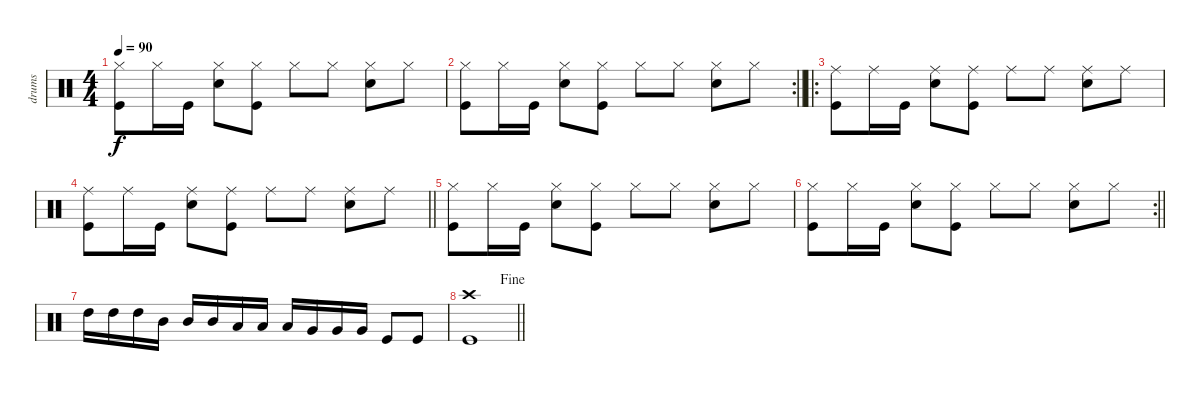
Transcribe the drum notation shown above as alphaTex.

\track ("drums" "drums") {instrument percussion}
\staff {score}
\articulation defaults
\ts (4 4)
\tempo 90
\clef neutral
\ks c
("Hi-Hat (closed)" "Kick (hit)").8{dy f} "Hi-Hat (closed)".16 "Kick (hit)".16 ("Hi-Hat (closed)" "Snare (hit) 2").8 ("Hi-Hat (closed)" "Kick (hit)").8 "Hi-Hat (closed)".8 "Hi-Hat (closed)".8 ("Hi-Hat (closed)" "Snare (hit) 2").8 "Hi-Hat (closed)".8 |
\rc 2
\barLineRight lightlight
("Hi-Hat (closed)" "Kick (hit)").8 "Hi-Hat (closed)".16 "Kick (hit)".16 ("Hi-Hat (closed)" "Snare (hit) 2").8 ("Hi-Hat (closed)" "Kick (hit)").8 "Hi-Hat (closed)".8 "Hi-Hat (closed)".8 ("Hi-Hat (closed)" "Snare (hit) 2").8 "Hi-Hat (closed)".8 |
\ro
("Ride (middle)" "Kick (hit)").8 "Ride (middle)".16 "Kick (hit)".16 ("Ride (middle)" "Snare (hit) 2").8 ("Ride (middle)" "Kick (hit)").8 "Ride (middle)".8 "Ride (middle)".8 ("Ride (middle)" "Snare (hit) 2").8 "Ride (middle)".8 |
\barLineRight lightlight
("Ride (middle)" "Kick (hit)").8 "Ride (middle)".16 "Kick (hit)".16 ("Ride (middle)" "Snare (hit) 2").8 ("Ride (middle)" "Kick (hit)").8 "Ride (middle)".8 "Ride (middle)".8 ("Ride (middle)" "Snare (hit) 2").8 "Ride (middle)".8 |
("Hi-Hat (closed)" "Kick (hit)").8 "Hi-Hat (closed)".16 "Kick (hit)".16 ("Hi-Hat (closed)" "Snare (hit) 2").8 ("Hi-Hat (closed)" "Kick (hit)").8 "Hi-Hat (closed)".8 "Hi-Hat (closed)".8 ("Hi-Hat (closed)" "Snare (hit) 2").8 "Hi-Hat (closed)".8 |
\rc 2
\barLineRight lightlight
("Hi-Hat (closed)" "Kick (hit)").8 "Hi-Hat (closed)".16 "Kick (hit)".16 ("Hi-Hat (closed)" "Snare (hit) 2").8 ("Hi-Hat (closed)" "Kick (hit)").8 "Hi-Hat (closed)".8 "Hi-Hat (closed)".8 ("Hi-Hat (closed)" "Snare (hit) 2").8 "Hi-Hat (closed)".8 |
"High Tom (hit)".16 "High Tom (hit)".16 "High Tom (hit)".16 "Mid Tom (hit)".16 "Mid Tom (hit)".16 "Mid Tom (hit)".16 "Low Tom (hit)".16 "Low Tom (hit)".16 "Low Tom (hit)".16 "Very Low Tom (hit)".16 "Very Low Tom (hit)".16 "Very Low Tom (hit)".16 "Kick (hit)".8 "Kick (hit)".8 |
\jump fine
\barLineRight lightlight
("Kick (hit)" "Crash high (hit)").1
